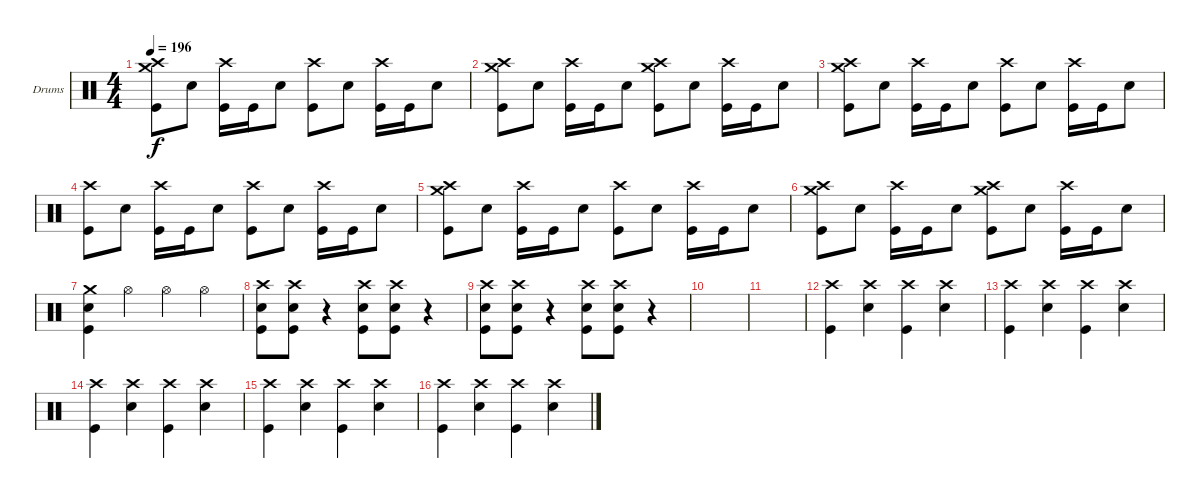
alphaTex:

\defaultSystemsLayout 4
\bracketExtendMode groupsimilarinstruments
\firstSystemTrackNameOrientation horizontal
\otherSystemsTrackNameOrientation horizontal
\track ("Lars Ulrich (Drum)" "Drums") {instrument percussion}
\staff {score}
\articulation defaults
\ts (4 4)
\tempo 196
\clef neutral
\scale
0.333333
\ks c
("Crash high (hit)" "Crash medium (hit)" "Kick (hit)").8{dy f} "Snare (hit) 2".8 ("Crash high (hit)" "Kick (hit)").16 "Kick (hit)".16 "Snare (hit) 2".8 ("Crash high (hit)" "Kick (hit)").8 "Snare (hit) 2".8 ("Crash high (hit)" "Kick (hit)").16 "Kick (hit)".16 "Snare (hit) 2".8 |
\scale
0.333333 ("Crash high (hit)" "Crash medium (hit)" "Kick (hit)").8 "Snare (hit) 2".8 ("Crash high (hit)" "Kick (hit)").16 "Kick (hit)".16 "Snare (hit) 2".8 ("Crash high (hit)" "Crash medium (hit)" "Kick (hit)").8 "Snare (hit) 2".8 ("Crash high (hit)" "Kick (hit)").16 "Kick (hit)".16 "Snare (hit) 2".8 |
\scale
0.333333 ("Crash high (hit)" "Crash medium (hit)" "Kick (hit)").8 "Snare (hit) 2".8 ("Crash high (hit)" "Kick (hit)").16 "Kick (hit)".16 "Snare (hit) 2".8 ("Crash high (hit)" "Kick (hit)").8 "Snare (hit) 2".8 ("Crash high (hit)" "Kick (hit)").16 "Kick (hit)".16 "Snare (hit) 2".8 |
\scale
0.333333 ("Crash high (hit)" "Kick (hit)").8 "Snare (hit) 2".8 ("Crash high (hit)" "Kick (hit)").16 "Kick (hit)".16 "Snare (hit) 2".8 ("Crash high (hit)" "Kick (hit)").8 "Snare (hit) 2".8 ("Crash high (hit)" "Kick (hit)").16 "Kick (hit)".16 "Snare (hit) 2".8 |
\scale
0.333333 ("Crash high (hit)" "Crash medium (hit)" "Kick (hit)").8 "Snare (hit) 2".8 ("Crash high (hit)" "Kick (hit)").16 "Kick (hit)".16 "Snare (hit) 2".8 ("Crash high (hit)" "Kick (hit)").8 "Snare (hit) 2".8 ("Crash high (hit)" "Kick (hit)").16 "Kick (hit)".16 "Snare (hit) 2".8 |
\scale
0.333333 ("Crash high (hit)" "Crash medium (hit)" "Kick (hit)").8 "Snare (hit) 2".8 ("Crash high (hit)" "Kick (hit)").16 "Kick (hit)".16 "Snare (hit) 2".8 ("Crash high (hit)" "Crash medium (hit)" "Kick (hit)").8 "Snare (hit) 2".8 ("Crash high (hit)" "Kick (hit)").16 "Kick (hit)".16 "Snare (hit) 2".8 |
\scale
0.333333 ("Crash medium (hit)" "Snare (hit) 2" "Kick (hit)").4 "Hi-Hat (open)".4 "Hi-Hat (open)".4 "Hi-Hat (open)".4 |
\scale
0.333333 ("Crash high (hit)" "Snare (hit) 2" "Kick (hit)").8 ("Crash high (hit)" "Snare (hit) 2" "Kick (hit)").8 r.4 ("Crash high (hit)" "Snare (hit) 2" "Kick (hit)").8 ("Crash high (hit)" "Snare (hit) 2" "Kick (hit)").8 r.4 |
\scale
0.333333 ("Crash high (hit)" "Snare (hit) 2" "Kick (hit)").8 ("Crash high (hit)" "Snare (hit) 2" "Kick (hit)").8 r.4 ("Crash high (hit)" "Snare (hit) 2" "Kick (hit)").8 ("Crash high (hit)" "Snare (hit) 2" "Kick (hit)").8 r.4 |
\scale
0.333333 |
\scale
0.333333 |
\scale
0.333333 ("Crash high (hit)" "Kick (hit)").4 ("Crash high (hit)" "Snare (hit) 2").4 ("Crash high (hit)" "Kick (hit)").4 ("Crash high (hit)" "Snare (hit) 2").4 |
\scale
0.333333 ("Crash high (hit)" "Kick (hit)").4 ("Crash high (hit)" "Snare (hit) 2").4 ("Crash high (hit)" "Kick (hit)").4 ("Crash high (hit)" "Snare (hit) 2").4 |
\scale
0.333333 ("Crash high (hit)" "Kick (hit)").4 ("Crash high (hit)" "Snare (hit) 2").4 ("Crash high (hit)" "Kick (hit)").4 ("Crash high (hit)" "Snare (hit) 2").4 |
\scale
0.333333 ("Crash high (hit)" "Kick (hit)").4 ("Crash high (hit)" "Snare (hit) 2").4 ("Crash high (hit)" "Kick (hit)").4 ("Crash high (hit)" "Snare (hit) 2").4 |
\scale
0.333333 ("Crash high (hit)" "Kick (hit)").4 ("Crash high (hit)" "Snare (hit) 2").4 ("Crash high (hit)" "Kick (hit)").4 ("Crash high (hit)" "Snare (hit) 2").4
